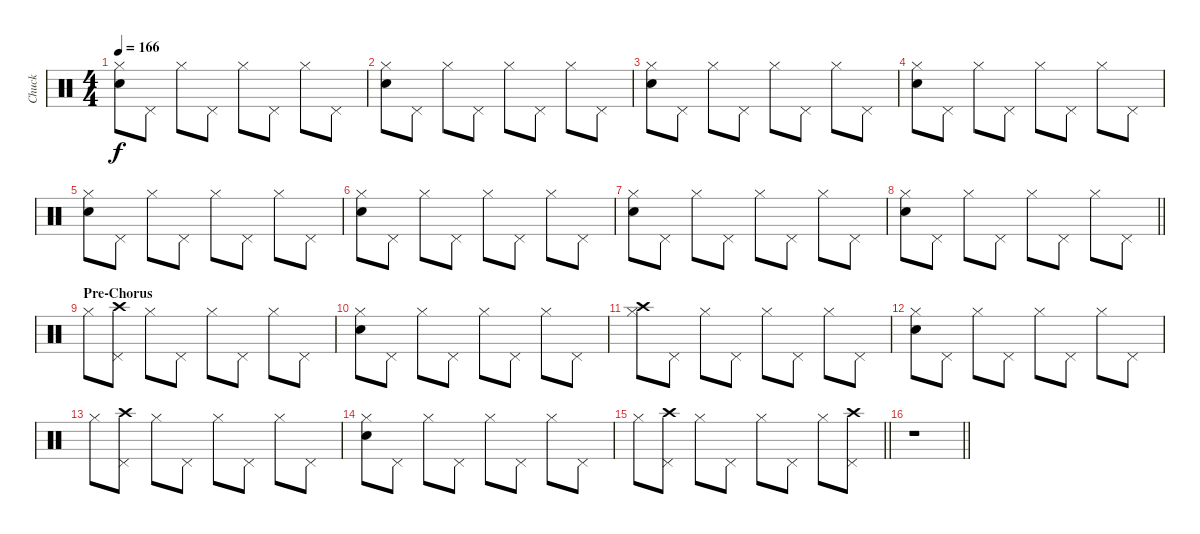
\track ("Chuck" "Chuck") {instrument percussion}
\staff {score}
\articulation defaults
\ts (4 4)
\tempo 166
\clef neutral
\ks c
("Hi-Hat (closed)" "Hand Clap (hit)").8{dy f} "Pedal Hi-Hat (hit)".8 "Hi-Hat (closed)".8 "Pedal Hi-Hat (hit)".8 "Hi-Hat (closed)".8 "Pedal Hi-Hat (hit)".8 "Hi-Hat (closed)".8 "Pedal Hi-Hat (hit)".8 |
("Hi-Hat (closed)" "Hand Clap (hit)").8 "Pedal Hi-Hat (hit)".8 "Hi-Hat (closed)".8 "Pedal Hi-Hat (hit)".8 "Hi-Hat (closed)".8 "Pedal Hi-Hat (hit)".8 "Hi-Hat (closed)".8 "Pedal Hi-Hat (hit)".8 |
("Hi-Hat (closed)" "Hand Clap (hit)").8 "Pedal Hi-Hat (hit)".8 "Hi-Hat (closed)".8 "Pedal Hi-Hat (hit)".8 "Hi-Hat (closed)".8 "Pedal Hi-Hat (hit)".8 "Hi-Hat (closed)".8 "Pedal Hi-Hat (hit)".8 |
("Hi-Hat (closed)" "Hand Clap (hit)").8 "Pedal Hi-Hat (hit)".8 "Hi-Hat (closed)".8 "Pedal Hi-Hat (hit)".8 "Hi-Hat (closed)".8 "Pedal Hi-Hat (hit)".8 "Hi-Hat (closed)".8 "Pedal Hi-Hat (hit)".8 |
("Hi-Hat (closed)" "Hand Clap (hit)").8 "Pedal Hi-Hat (hit)".8 "Hi-Hat (closed)".8 "Pedal Hi-Hat (hit)".8 "Hi-Hat (closed)".8 "Pedal Hi-Hat (hit)".8 "Hi-Hat (closed)".8 "Pedal Hi-Hat (hit)".8 |
("Hi-Hat (closed)" "Hand Clap (hit)").8 "Pedal Hi-Hat (hit)".8 "Hi-Hat (closed)".8 "Pedal Hi-Hat (hit)".8 "Hi-Hat (closed)".8 "Pedal Hi-Hat (hit)".8 "Hi-Hat (closed)".8 "Pedal Hi-Hat (hit)".8 |
("Hi-Hat (closed)" "Hand Clap (hit)").8 "Pedal Hi-Hat (hit)".8 "Hi-Hat (closed)".8 "Pedal Hi-Hat (hit)".8 "Hi-Hat (closed)".8 "Pedal Hi-Hat (hit)".8 "Hi-Hat (closed)".8 "Pedal Hi-Hat (hit)".8 |
\barLineRight lightlight
("Hi-Hat (closed)" "Hand Clap (hit)").8 "Pedal Hi-Hat (hit)".8 "Hi-Hat (closed)".8 "Pedal Hi-Hat (hit)".8 "Hi-Hat (closed)".8 "Pedal Hi-Hat (hit)".8 "Hi-Hat (closed)".8 "Pedal Hi-Hat (hit)".8 |
\section ("" "Pre-Chorus")
"Hi-Hat (closed)".8 ("Pedal Hi-Hat (hit)" "Crash high (hit)").8 "Hi-Hat (closed)".8 "Pedal Hi-Hat (hit)".8 "Hi-Hat (closed)".8 "Pedal Hi-Hat (hit)".8 "Hi-Hat (closed)".8 "Pedal Hi-Hat (hit)".8 |
("Hi-Hat (closed)" "Hand Clap (hit)").8 "Pedal Hi-Hat (hit)".8 "Hi-Hat (closed)".8 "Pedal Hi-Hat (hit)".8 "Hi-Hat (closed)".8 "Pedal Hi-Hat (hit)".8 "Hi-Hat (closed)".8 "Pedal Hi-Hat (hit)".8 |
("Hi-Hat (closed)" "Crash high (hit)").8 "Pedal Hi-Hat (hit)".8 "Hi-Hat (closed)".8 "Pedal Hi-Hat (hit)".8 "Hi-Hat (closed)".8 "Pedal Hi-Hat (hit)".8 "Hi-Hat (closed)".8 "Pedal Hi-Hat (hit)".8 |
("Hi-Hat (closed)" "Hand Clap (hit)").8 "Pedal Hi-Hat (hit)".8 "Hi-Hat (closed)".8 "Pedal Hi-Hat (hit)".8 "Hi-Hat (closed)".8 "Pedal Hi-Hat (hit)".8 "Hi-Hat (closed)".8 "Pedal Hi-Hat (hit)".8 |
"Hi-Hat (closed)".8 ("Pedal Hi-Hat (hit)" "Crash high (hit)").8 "Hi-Hat (closed)".8 "Pedal Hi-Hat (hit)".8 "Hi-Hat (closed)".8 "Pedal Hi-Hat (hit)".8 "Hi-Hat (closed)".8 "Pedal Hi-Hat (hit)".8 |
("Hi-Hat (closed)" "Hand Clap (hit)").8 "Pedal Hi-Hat (hit)".8 "Hi-Hat (closed)".8 "Pedal Hi-Hat (hit)".8 "Hi-Hat (closed)".8 "Pedal Hi-Hat (hit)".8 "Hi-Hat (closed)".8 "Pedal Hi-Hat (hit)".8 |
\barLineRight lightlight "Hi-Hat (closed)".8
("Pedal Hi-Hat (hit)" "Crash high (hit)").8 "Hi-Hat (closed)".8 "Pedal Hi-Hat (hit)".8 "Hi-Hat (closed)".8 "Pedal Hi-Hat (hit)".8 "Hi-Hat (closed)".8 ("Pedal Hi-Hat (hit)" "Crash high (hit)").8 |
\barLineRight lightlight
r.1
